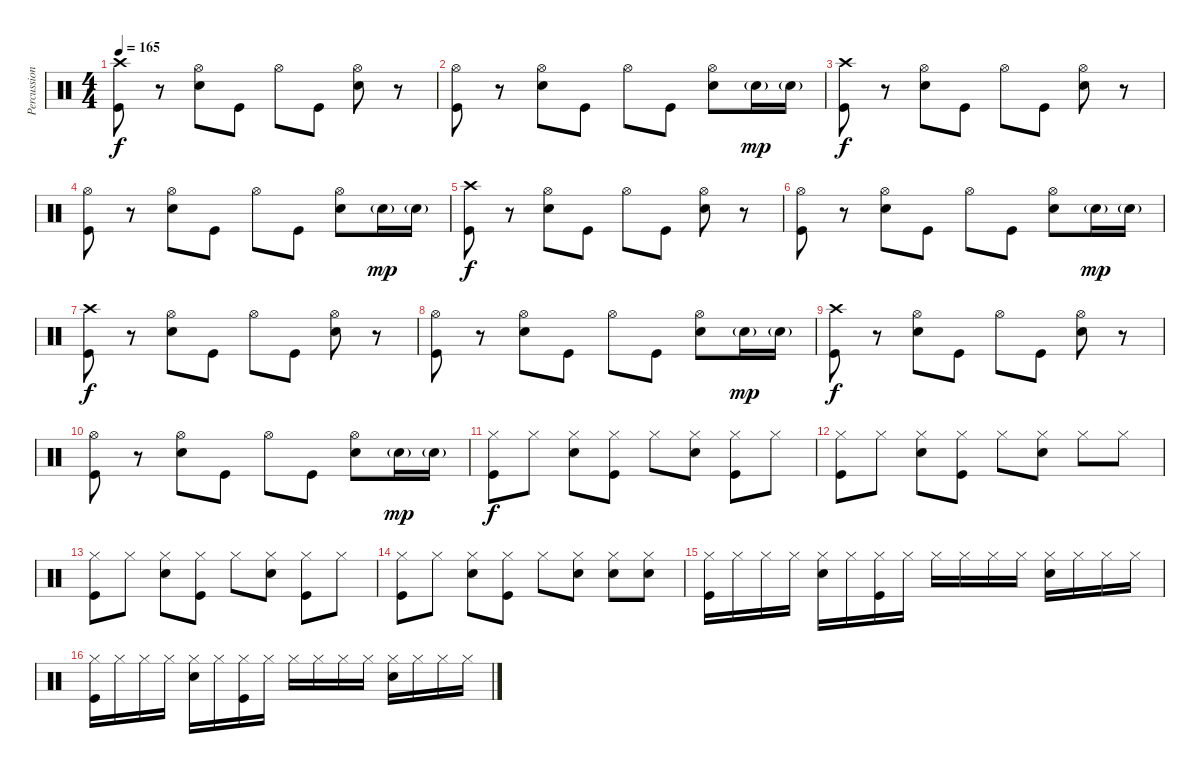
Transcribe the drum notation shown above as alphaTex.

\track ("Percussion" "Percussion") {instrument percussion}
\staff {score}
\articulation defaults
\ts (4 4)
\tempo 165
\clef neutral
\ks c
("Crash high (hit)" "Kick (hit)").8{dy f} r.8 ("Hi-Hat (open)" "Snare (hit) 2").8 "Kick (hit)".8 "Hi-Hat (open)".8 "Kick (hit)".8 ("Hi-Hat (open)" "Snare (hit) 2").8 r.8 |
("Hi-Hat (open)" "Kick (hit)").8 r.8 ("Hi-Hat (open)" "Snare (hit) 2").8 "Kick (hit)".8 "Hi-Hat (open)".8 "Kick (hit)".8 ("Hi-Hat (open)" "Snare (hit) 2").8 "Snare (hit) 2"{g}.16{dy mp} "Snare (hit) 2"{g}.16 |
("Crash high (hit)" "Kick (hit)").8{dy f} r.8 ("Hi-Hat (open)" "Snare (hit) 2").8 "Kick (hit)".8 "Hi-Hat (open)".8 "Kick (hit)".8 ("Hi-Hat (open)" "Snare (hit) 2").8 r.8 |
("Hi-Hat (open)" "Kick (hit)").8 r.8 ("Hi-Hat (open)" "Snare (hit) 2").8 "Kick (hit)".8 "Hi-Hat (open)".8 "Kick (hit)".8 ("Hi-Hat (open)" "Snare (hit) 2").8 "Snare (hit) 2"{g}.16{dy mp} "Snare (hit) 2"{g}.16 |
("Crash high (hit)" "Kick (hit)").8{dy f} r.8 ("Hi-Hat (open)" "Snare (hit) 2").8 "Kick (hit)".8 "Hi-Hat (open)".8 "Kick (hit)".8 ("Hi-Hat (open)" "Snare (hit) 2").8 r.8 |
("Hi-Hat (open)" "Kick (hit)").8 r.8 ("Hi-Hat (open)" "Snare (hit) 2").8 "Kick (hit)".8 "Hi-Hat (open)".8 "Kick (hit)".8 ("Hi-Hat (open)" "Snare (hit) 2").8 "Snare (hit) 2"{g}.16{dy mp} "Snare (hit) 2"{g}.16 |
("Crash high (hit)" "Kick (hit)").8{dy f} r.8 ("Hi-Hat (open)" "Snare (hit) 2").8 "Kick (hit)".8 "Hi-Hat (open)".8 "Kick (hit)".8 ("Hi-Hat (open)" "Snare (hit) 2").8 r.8 |
("Hi-Hat (open)" "Kick (hit)").8 r.8 ("Hi-Hat (open)" "Snare (hit) 2").8 "Kick (hit)".8 "Hi-Hat (open)".8 "Kick (hit)".8 ("Hi-Hat (open)" "Snare (hit) 2").8 "Snare (hit) 2"{g}.16{dy mp} "Snare (hit) 2"{g}.16 |
("Crash high (hit)" "Kick (hit)").8{dy f} r.8 ("Hi-Hat (open)" "Snare (hit) 2").8 "Kick (hit)".8 "Hi-Hat (open)".8 "Kick (hit)".8 ("Hi-Hat (open)" "Snare (hit) 2").8 r.8 |
("Hi-Hat (open)" "Kick (hit)").8 r.8 ("Hi-Hat (open)" "Snare (hit) 2").8 "Kick (hit)".8 "Hi-Hat (open)".8 "Kick (hit)".8 ("Hi-Hat (open)" "Snare (hit) 2").8 "Snare (hit) 2"{g}.16{dy mp} "Snare (hit) 2"{g}.16 |
("Hi-Hat (closed)" "Kick (hit)").8{dy f} "Hi-Hat (closed)".8 ("Hi-Hat (closed)" "Snare (hit) 2").8 ("Hi-Hat (closed)" "Kick (hit)").8 "Hi-Hat (closed)".8 ("Hi-Hat (closed)" "Snare (hit) 2").8 ("Hi-Hat (closed)" "Kick (hit)").8 "Hi-Hat (closed)".8 |
("Hi-Hat (closed)" "Kick (hit)").8 "Hi-Hat (closed)".8 ("Hi-Hat (closed)" "Snare (hit) 2").8 ("Hi-Hat (closed)" "Kick (hit)").8 "Hi-Hat (closed)".8 ("Hi-Hat (closed)" "Snare (hit) 2").8 "Hi-Hat (closed)".8 "Hi-Hat (closed)".8 |
("Hi-Hat (closed)" "Kick (hit)").8 "Hi-Hat (closed)".8 ("Hi-Hat (closed)" "Snare (hit) 2").8 ("Hi-Hat (closed)" "Kick (hit)").8 "Hi-Hat (closed)".8 ("Hi-Hat (closed)" "Snare (hit) 2").8 ("Hi-Hat (closed)" "Kick (hit)").8 "Hi-Hat (closed)".8 |
("Hi-Hat (closed)" "Kick (hit)").8 "Hi-Hat (closed)".8 ("Hi-Hat (closed)" "Snare (hit) 2").8 ("Hi-Hat (closed)" "Kick (hit)").8 "Hi-Hat (closed)".8 ("Hi-Hat (closed)" "Snare (hit) 2").8 ("Hi-Hat (closed)" "Snare (hit) 2").8 ("Hi-Hat (closed)" "Snare (hit) 2").8 |
("Hi-Hat (closed)" "Kick (hit)").16 "Hi-Hat (closed)".16 "Hi-Hat (closed)".16 "Hi-Hat (closed)".16 ("Hi-Hat (closed)" "Snare (hit) 2").16 "Hi-Hat (closed)".16 ("Hi-Hat (closed)" "Kick (hit)").16 "Hi-Hat (closed)".16 "Hi-Hat (closed)".16 "Hi-Hat (closed)".16 "Hi-Hat (closed)".16 "Hi-Hat (closed)".16 ("Hi-Hat (closed)" "Snare (hit) 2").16 "Hi-Hat (closed)".16 "Hi-Hat (closed)".16 "Hi-Hat (closed)".16 |
("Hi-Hat (closed)" "Kick (hit)").16 "Hi-Hat (closed)".16 "Hi-Hat (closed)".16 "Hi-Hat (closed)".16 ("Hi-Hat (closed)" "Snare (hit) 2").16 "Hi-Hat (closed)".16 ("Hi-Hat (closed)" "Kick (hit)").16 "Hi-Hat (closed)".16 "Hi-Hat (closed)".16 "Hi-Hat (closed)".16 "Hi-Hat (closed)".16 "Hi-Hat (closed)".16 ("Hi-Hat (closed)" "Snare (hit) 2").16 "Hi-Hat (closed)".16 "Hi-Hat (closed)".16 "Hi-Hat (closed)".16
